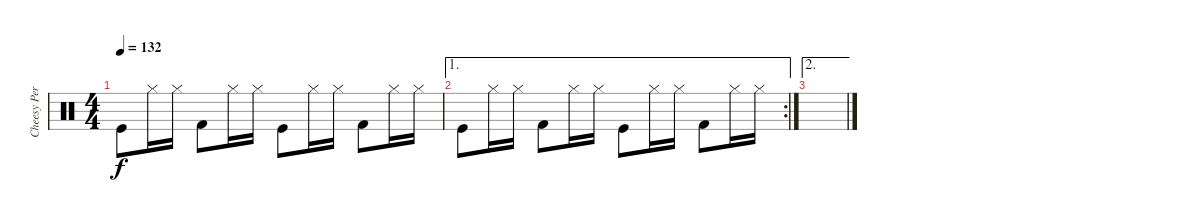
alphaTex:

\track ("Cheesy Percussion" "Cheesy Per") {instrument percussion}
\staff {score}
\articulation defaults
\ts (4 4)
\tempo 132
\clef neutral
\ks c "Kick (hit)".8{dy f} "Hi-Hat (closed)".16 "Hi-Hat (closed)".16 "Kick (hit) 2".8 "Hi-Hat (closed)".16 "Hi-Hat (closed)".16 "Kick (hit)".8 "Hi-Hat (closed)".16 "Hi-Hat (closed)".16 "Kick (hit) 2".8 "Hi-Hat (closed)".16 "Hi-Hat (closed)".16
|
\ae 1
\rc 2 "Kick (hit)".8 "Hi-Hat (closed)".16 "Hi-Hat (closed)".16 "Kick (hit) 2".8 "Hi-Hat (closed)".16 "Hi-Hat (closed)".16 "Kick (hit)".8 "Hi-Hat (closed)".16 "Hi-Hat (closed)".16 "Kick (hit) 2".8 "Hi-Hat (closed)".16 "Hi-Hat (closed)".16
|
\ae 2
